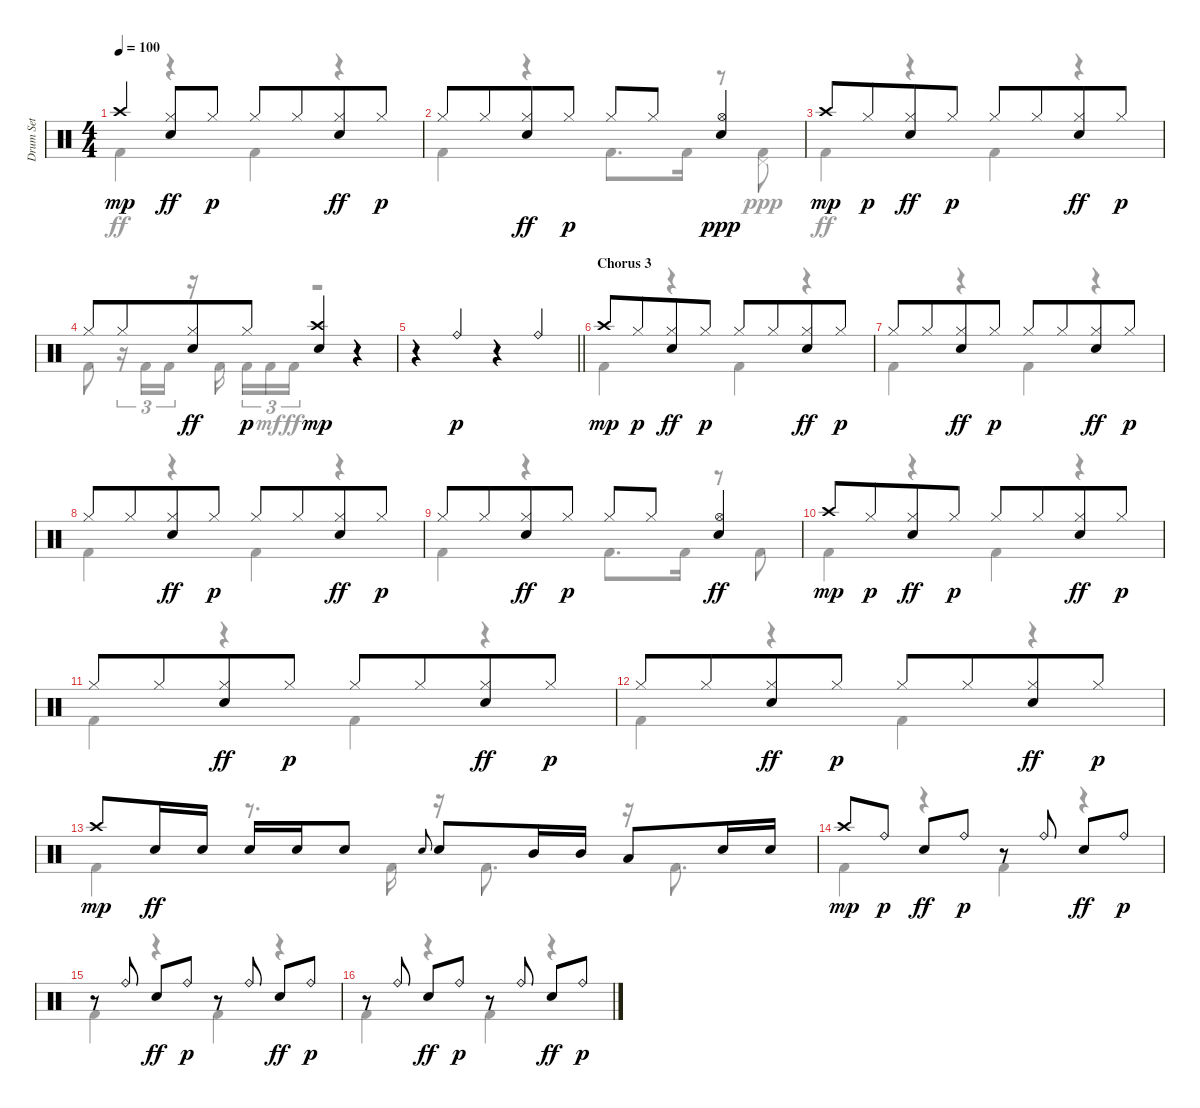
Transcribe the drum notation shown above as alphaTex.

\track ("Drum Set" "Drum Set") {instrument percussion}
\staff {score}
\articulation defaults
\voice
\ts (4 4)
\tempo 100
\clef neutral
\ks c "Crash high (hit)".4{dy mp}
("Hi-Hat (closed)" "Electric Snare (hit)").8{dy ff} "Hi-Hat (closed)".8{dy p} "Hi-Hat (closed)".8 "Hi-Hat (closed)".8{beam merge} ("Hi-Hat (closed)" "Electric Snare (hit)").8{dy ff} "Hi-Hat (closed)".8{dy p} |
"Hi-Hat (closed)".8 "Hi-Hat (closed)".8{beam merge} ("Hi-Hat (closed)" "Electric Snare (hit)").8{dy ff} "Hi-Hat (closed)".8{dy p} "Hi-Hat (closed)".8 "Hi-Hat (closed)".8{beam merge} ("Electric Snare (hit)" "Hi-Hat (open)").4{dy ppp} |
"Crash high (hit)".8{dy mp} "Hi-Hat (closed)".8{dy p beam merge} ("Hi-Hat (closed)" "Electric Snare (hit)").8{dy ff} "Hi-Hat (closed)".8{dy p} "Hi-Hat (closed)".8 "Hi-Hat (closed)".8{beam merge} ("Hi-Hat (closed)" "Electric Snare (hit)").8{dy ff} "Hi-Hat (closed)".8{dy p} |
"Hi-Hat (closed)".8 "Hi-Hat (closed)".8{beam merge} ("Hi-Hat (closed)" "Electric Snare (hit)").8{dy ff} "Hi-Hat (closed)".8{dy p} ("Electric Snare (hit)" "Crash high (hit)").4{dy mp} r.4 |
\barLineRight lightlight
\ks aminor
r.4 "Ride (bell)".4{dy p beam Up} r.4 "Ride (bell)".4{beam Up} |
\section ("" "Chorus 3")
\ks c "Crash high (hit)".8{dy mp} "Hi-Hat (closed)".8{dy p beam merge}
("Hi-Hat (closed)" "Electric Snare (hit)").8{dy ff} "Hi-Hat (closed)".8{dy p} "Hi-Hat (closed)".8 "Hi-Hat (closed)".8{beam merge} ("Hi-Hat (closed)" "Electric Snare (hit)").8{dy ff} "Hi-Hat (closed)".8{dy p} |
"Hi-Hat (closed)".8 "Hi-Hat (closed)".8{beam merge} ("Hi-Hat (closed)" "Electric Snare (hit)").8{dy ff} "Hi-Hat (closed)".8{dy p} "Hi-Hat (closed)".8 "Hi-Hat (closed)".8{beam merge} ("Hi-Hat (closed)" "Electric Snare (hit)").8{dy ff} "Hi-Hat (closed)".8{dy p} |
"Hi-Hat (closed)".8 "Hi-Hat (closed)".8{beam merge} ("Hi-Hat (closed)" "Electric Snare (hit)").8{dy ff} "Hi-Hat (closed)".8{dy p} "Hi-Hat (closed)".8 "Hi-Hat (closed)".8{beam merge} ("Hi-Hat (closed)" "Electric Snare (hit)").8{dy ff} "Hi-Hat (closed)".8{dy p} |
"Hi-Hat (closed)".8 "Hi-Hat (closed)".8{beam merge} ("Hi-Hat (closed)" "Electric Snare (hit)").8{dy ff} "Hi-Hat (closed)".8{dy p} "Hi-Hat (closed)".8 "Hi-Hat (closed)".8{beam merge} ("Hi-Hat (open)" "Electric Snare (hit)").4{dy ff} |
"Crash high (hit)".8{dy mp} "Hi-Hat (closed)".8{dy p beam merge} ("Hi-Hat (closed)" "Electric Snare (hit)").8{dy ff} "Hi-Hat (closed)".8{dy p} "Hi-Hat (closed)".8 "Hi-Hat (closed)".8{beam merge} ("Hi-Hat (closed)" "Electric Snare (hit)").8{dy ff} "Hi-Hat (closed)".8{dy p} |
"Hi-Hat (closed)".8 "Hi-Hat (closed)".8{beam merge} ("Hi-Hat (closed)" "Electric Snare (hit)").8{dy ff} "Hi-Hat (closed)".8{dy p} "Hi-Hat (closed)".8 "Hi-Hat (closed)".8{beam merge} ("Hi-Hat (closed)" "Electric Snare (hit)").8{dy ff} "Hi-Hat (closed)".8{dy p} |
"Hi-Hat (closed)".8 "Hi-Hat (closed)".8{beam merge} ("Hi-Hat (closed)" "Electric Snare (hit)").8{dy ff} "Hi-Hat (closed)".8{dy p} "Hi-Hat (closed)".8 "Hi-Hat (closed)".8{beam merge} ("Hi-Hat (closed)" "Electric Snare (hit)").8{dy ff} "Hi-Hat (closed)".8{dy p} |
"Crash high (hit)".8{dy mp} "Electric Snare (hit)".16{dy ff} "Electric Snare (hit)".16 "Electric Snare (hit)".16 "Electric Snare (hit)".16 "Electric Snare (hit)".8 "Electric Snare (hit)".8{gr onbeat} "Electric Snare (hit)".8 "Mid Tom (hit)".16 "Mid Tom (hit)".16 "Low Tom (hit)".8 "Electric Snare (hit)".16 "Electric Snare (hit)".16 |
"Crash high (hit)".8{dy mp} "Ride (bell)".8{dy p} "Electric Snare (hit)".8{dy ff} "Ride (bell)".8{dy p} r.8 "Ride (bell)".8 "Electric Snare (hit)".8{dy ff} "Ride (bell)".8{dy p} |
r.8 "Ride (bell)".8 "Electric Snare (hit)".8{dy ff} "Ride (bell)".8{dy p} r.8 "Ride (bell)".8 "Electric Snare (hit)".8{dy ff} "Ride (bell)".8{dy p} |
r.8 "Ride (bell)".8 "Electric Snare (hit)".8{dy ff} "Ride (bell)".8{dy p} r.8 "Ride (bell)".8 "Electric Snare (hit)".8{dy ff} "Ride (bell)".8{dy p}
\voice
\clef neutral
\ottava regular
\simile none
\ks c "Kick (hit) 2".4{dy ff}
r.4 "Kick (hit) 2".4 r.4 |
"Kick (hit) 2".4 r.4 "Kick (hit) 2".8{d} "Kick (hit) 2".16 r.8 ("Kick (hit) 2" "Pedal Hi-Hat (hit)").8{dy ppp} |
"Kick (hit) 2".4{dy ff} r.4 "Kick (hit) 2".4 r.4 |
"Kick (hit) 2".8 r.16{tu (3 2)} "Kick (hit) 2".16{tu (3 2)} "Kick (hit) 2".16{tu (3 2)} r.16 "Kick (hit) 2".16{beam splitsecondary} "Kick (hit) 2".16{tu (3 2)} "Kick (hit) 2".16{tu (3 2) dy mf} "Kick (hit) 2".16{tu (3 2) dy ff} r.2 |
\barLineRight lightlight
\ks aminor
|
\ks c "Kick (hit) 2".4
r.4 "Kick (hit) 2".4 r.4 |
"Kick (hit) 2".4 r.4 "Kick (hit) 2".4 r.4 |
"Kick (hit) 2".4 r.4 "Kick (hit) 2".4 r.4 |
"Kick (hit) 2".4 r.4 "Kick (hit) 2".8{d} "Kick (hit) 2".16 r.8 "Kick (hit) 2".8 |
"Kick (hit) 2".4 r.4 "Kick (hit) 2".4 r.4 |
"Kick (hit) 2".4 r.4 "Kick (hit) 2".4 r.4 |
"Kick (hit) 2".4 r.4 "Kick (hit) 2".4 r.4 |
"Kick (hit) 2".4 r.8{d} "Kick (hit) 2".16 r.16 "Kick (hit) 2".8{d} r.16 "Kick (hit) 2".8{d} |
"Kick (hit) 2".4 r.4 "Kick (hit) 2".4 r.4 |
"Kick (hit) 2".4 r.4 "Kick (hit) 2".4 r.4 |
"Kick (hit) 2".4 r.4 "Kick (hit) 2".4 r.4
